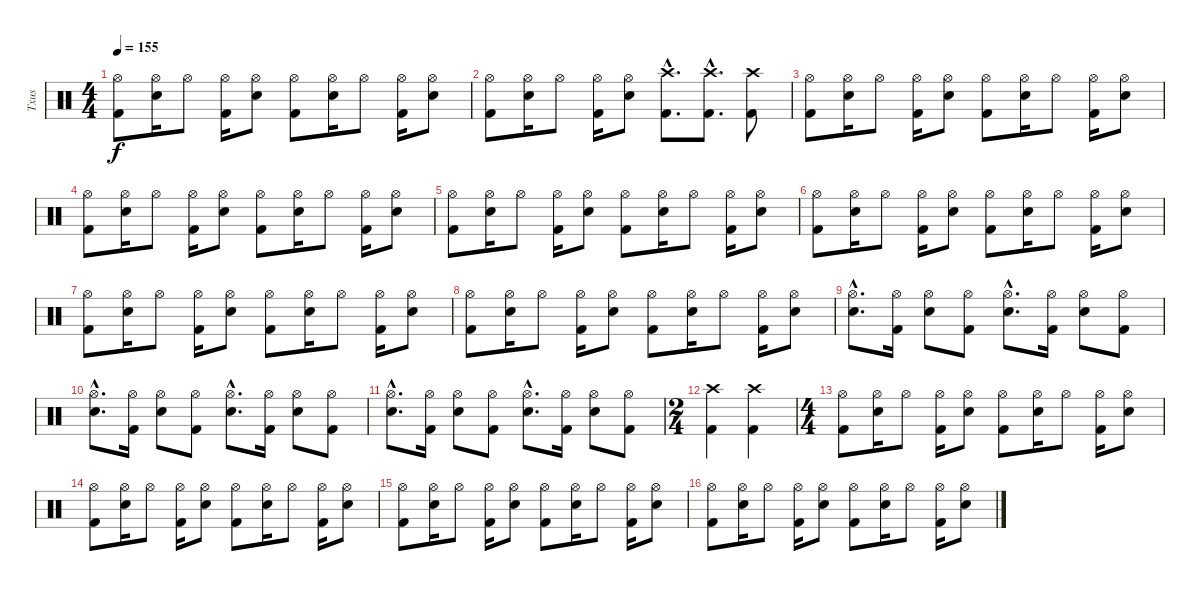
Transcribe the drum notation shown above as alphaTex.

\track ("Txus" "Txus") {instrument percussion}
\staff {score}
\articulation defaults
\ts (4 4)
\tempo 155
\clef neutral
\ks c
("Kick (hit) 2" "Hi-Hat (open)").8{dy f} ("Snare (hit) 2" "Hi-Hat (open)").16 "Hi-Hat (open)".8 ("Kick (hit) 2" "Hi-Hat (open)").16 ("Snare (hit) 2" "Hi-Hat (open)").8 ("Kick (hit) 2" "Hi-Hat (open)").8 ("Snare (hit) 2" "Hi-Hat (open)").16 "Hi-Hat (open)".8 ("Kick (hit) 2" "Hi-Hat (open)").16 ("Snare (hit) 2" "Hi-Hat (open)").8 |
("Kick (hit) 2" "Hi-Hat (open)").8 ("Snare (hit) 2" "Hi-Hat (open)").16 "Hi-Hat (open)".8 ("Kick (hit) 2" "Hi-Hat (open)").16 ("Snare (hit) 2" "Hi-Hat (open)").8 ("Kick (hit) 2"{hac} "Crash high (hit)"{hac}).8{d} ("Kick (hit) 2"{hac} "Crash high (hit)"{hac}).8{d} ("Kick (hit) 2" "Crash high (hit)").8 |
("Kick (hit) 2" "Hi-Hat (open)").8 ("Snare (hit) 2" "Hi-Hat (open)").16 "Hi-Hat (open)".8 ("Kick (hit) 2" "Hi-Hat (open)").16 ("Snare (hit) 2" "Hi-Hat (open)").8 ("Kick (hit) 2" "Hi-Hat (open)").8 ("Snare (hit) 2" "Hi-Hat (open)").16 "Hi-Hat (open)".8 ("Kick (hit) 2" "Hi-Hat (open)").16 ("Snare (hit) 2" "Hi-Hat (open)").8 |
("Kick (hit) 2" "Hi-Hat (open)").8 ("Snare (hit) 2" "Hi-Hat (open)").16 "Hi-Hat (open)".8 ("Kick (hit) 2" "Hi-Hat (open)").16 ("Snare (hit) 2" "Hi-Hat (open)").8 ("Kick (hit) 2" "Hi-Hat (open)").8 ("Snare (hit) 2" "Hi-Hat (open)").16 "Hi-Hat (open)".8 ("Kick (hit) 2" "Hi-Hat (open)").16 ("Snare (hit) 2" "Hi-Hat (open)").8 |
("Kick (hit) 2" "Hi-Hat (open)").8 ("Snare (hit) 2" "Hi-Hat (open)").16 "Hi-Hat (open)".8 ("Kick (hit) 2" "Hi-Hat (open)").16 ("Snare (hit) 2" "Hi-Hat (open)").8 ("Kick (hit) 2" "Hi-Hat (open)").8 ("Snare (hit) 2" "Hi-Hat (open)").16 "Hi-Hat (open)".8 ("Kick (hit) 2" "Hi-Hat (open)").16 ("Snare (hit) 2" "Hi-Hat (open)").8 |
("Kick (hit) 2" "Hi-Hat (open)").8 ("Snare (hit) 2" "Hi-Hat (open)").16 "Hi-Hat (open)".8 ("Kick (hit) 2" "Hi-Hat (open)").16 ("Snare (hit) 2" "Hi-Hat (open)").8 ("Kick (hit) 2" "Hi-Hat (open)").8 ("Snare (hit) 2" "Hi-Hat (open)").16 "Hi-Hat (open)".8 ("Kick (hit) 2" "Hi-Hat (open)").16 ("Snare (hit) 2" "Hi-Hat (open)").8 |
("Kick (hit) 2" "Hi-Hat (open)").8 ("Snare (hit) 2" "Hi-Hat (open)").16 "Hi-Hat (open)".8 ("Kick (hit) 2" "Hi-Hat (open)").16 ("Snare (hit) 2" "Hi-Hat (open)").8 ("Kick (hit) 2" "Hi-Hat (open)").8 ("Snare (hit) 2" "Hi-Hat (open)").16 "Hi-Hat (open)".8 ("Kick (hit) 2" "Hi-Hat (open)").16 ("Snare (hit) 2" "Hi-Hat (open)").8 |
("Kick (hit) 2" "Hi-Hat (open)").8 ("Snare (hit) 2" "Hi-Hat (open)").16 "Hi-Hat (open)".8 ("Kick (hit) 2" "Hi-Hat (open)").16 ("Snare (hit) 2" "Hi-Hat (open)").8 ("Kick (hit) 2" "Hi-Hat (open)").8 ("Snare (hit) 2" "Hi-Hat (open)").16 "Hi-Hat (open)".8 ("Kick (hit) 2" "Hi-Hat (open)").16 ("Snare (hit) 2" "Hi-Hat (open)").8 |
("Snare (hit) 2"{hac} "Hi-Hat (open)"{hac}).8{d} ("Kick (hit) 2" "Hi-Hat (open)").16 ("Snare (hit) 2" "Hi-Hat (open)").8 ("Kick (hit) 2" "Hi-Hat (open)").8 ("Snare (hit) 2"{hac} "Hi-Hat (open)"{hac}).8{d} ("Kick (hit) 2" "Hi-Hat (open)").16 ("Snare (hit) 2" "Hi-Hat (open)").8 ("Kick (hit) 2" "Hi-Hat (open)").8 |
("Snare (hit) 2"{hac} "Hi-Hat (open)"{hac}).8{d} ("Kick (hit) 2" "Hi-Hat (open)").16 ("Snare (hit) 2" "Hi-Hat (open)").8 ("Kick (hit) 2" "Hi-Hat (open)").8 ("Snare (hit) 2"{hac} "Hi-Hat (open)"{hac}).8{d} ("Kick (hit) 2" "Hi-Hat (open)").16 ("Snare (hit) 2" "Hi-Hat (open)").8 ("Kick (hit) 2" "Hi-Hat (open)").8 |
("Snare (hit) 2"{hac} "Hi-Hat (open)"{hac}).8{d} ("Kick (hit) 2" "Hi-Hat (open)").16 ("Snare (hit) 2" "Hi-Hat (open)").8 ("Kick (hit) 2" "Hi-Hat (open)").8 ("Snare (hit) 2"{hac} "Hi-Hat (open)"{hac}).8{d} ("Kick (hit) 2" "Hi-Hat (open)").16 ("Snare (hit) 2" "Hi-Hat (open)").8 ("Kick (hit) 2" "Hi-Hat (open)").8 |
\ts (2 4)
("Kick (hit) 2" "Crash high (hit)").4 ("Kick (hit) 2" "Crash high (hit)").4 |
\ts (4 4)
("Kick (hit) 2" "Hi-Hat (open)").8 ("Snare (hit) 2" "Hi-Hat (open)").16 "Hi-Hat (open)".8 ("Kick (hit) 2" "Hi-Hat (open)").16 ("Snare (hit) 2" "Hi-Hat (open)").8 ("Kick (hit) 2" "Hi-Hat (open)").8 ("Snare (hit) 2" "Hi-Hat (open)").16 "Hi-Hat (open)".8 ("Kick (hit) 2" "Hi-Hat (open)").16 ("Snare (hit) 2" "Hi-Hat (open)").8 |
("Kick (hit) 2" "Hi-Hat (open)").8 ("Snare (hit) 2" "Hi-Hat (open)").16 "Hi-Hat (open)".8 ("Kick (hit) 2" "Hi-Hat (open)").16 ("Snare (hit) 2" "Hi-Hat (open)").8 ("Kick (hit) 2" "Hi-Hat (open)").8 ("Snare (hit) 2" "Hi-Hat (open)").16 "Hi-Hat (open)".8 ("Kick (hit) 2" "Hi-Hat (open)").16 ("Snare (hit) 2" "Hi-Hat (open)").8 |
("Kick (hit) 2" "Hi-Hat (open)").8 ("Snare (hit) 2" "Hi-Hat (open)").16 "Hi-Hat (open)".8 ("Kick (hit) 2" "Hi-Hat (open)").16 ("Snare (hit) 2" "Hi-Hat (open)").8 ("Kick (hit) 2" "Hi-Hat (open)").8 ("Snare (hit) 2" "Hi-Hat (open)").16 "Hi-Hat (open)".8 ("Kick (hit) 2" "Hi-Hat (open)").16 ("Snare (hit) 2" "Hi-Hat (open)").8 |
("Kick (hit) 2" "Hi-Hat (open)").8 ("Snare (hit) 2" "Hi-Hat (open)").16 "Hi-Hat (open)".8 ("Kick (hit) 2" "Hi-Hat (open)").16 ("Snare (hit) 2" "Hi-Hat (open)").8 ("Kick (hit) 2" "Hi-Hat (open)").8 ("Snare (hit) 2" "Hi-Hat (open)").16 "Hi-Hat (open)".8 ("Kick (hit) 2" "Hi-Hat (open)").16 ("Snare (hit) 2" "Hi-Hat (open)").8
